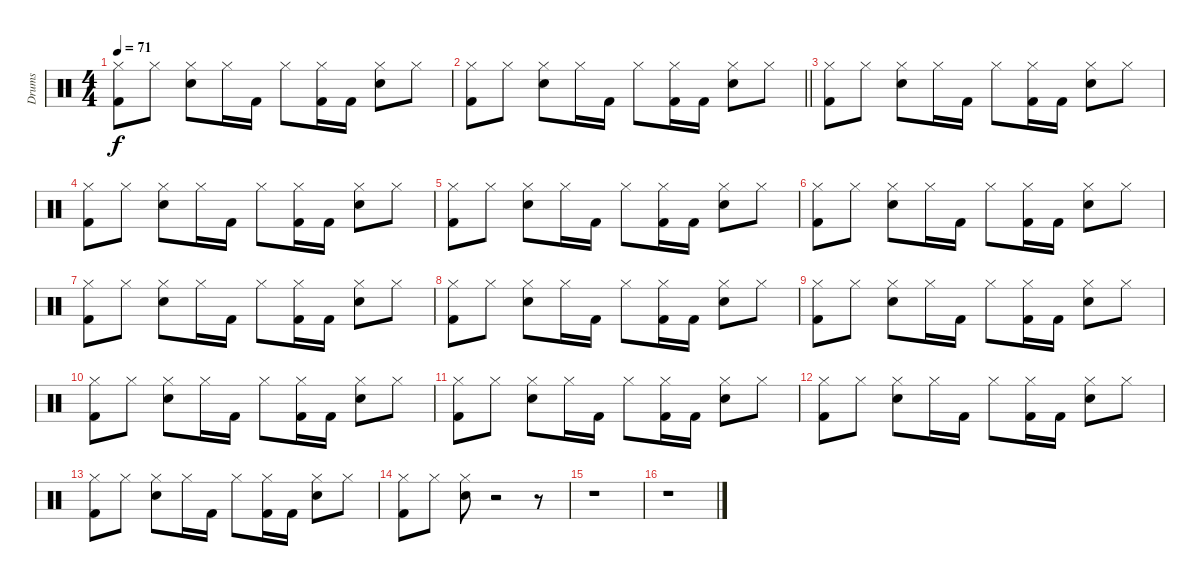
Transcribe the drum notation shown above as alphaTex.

\track ("Drums" "Drums") {instrument percussion}
\staff {score}
\articulation defaults
\ts (4 4)
\tempo 71
\clef neutral
\ks c
("Hi-Hat (closed)" "Kick (hit) 2").8{dy f} "Hi-Hat (closed)".8 ("Hi-Hat (closed)" "Snare (hit) 2").8 "Hi-Hat (closed)".16 "Kick (hit) 2".16 "Hi-Hat (closed)".8 ("Hi-Hat (closed)" "Kick (hit) 2").16 "Kick (hit) 2".16 ("Hi-Hat (closed)" "Snare (hit) 2").8 "Hi-Hat (closed)".8 |
\barLineRight lightlight
("Hi-Hat (closed)" "Kick (hit) 2").8 "Hi-Hat (closed)".8 ("Hi-Hat (closed)" "Snare (hit) 2").8 "Hi-Hat (closed)".16 "Kick (hit) 2".16 "Hi-Hat (closed)".8 ("Hi-Hat (closed)" "Kick (hit) 2").16 "Kick (hit) 2".16 ("Hi-Hat (closed)" "Snare (hit) 2").8 "Hi-Hat (closed)".8 |
("Hi-Hat (closed)" "Kick (hit) 2").8 "Hi-Hat (closed)".8 ("Hi-Hat (closed)" "Snare (hit) 2").8 "Hi-Hat (closed)".16 "Kick (hit) 2".16 "Hi-Hat (closed)".8 ("Hi-Hat (closed)" "Kick (hit) 2").16 "Kick (hit) 2".16 ("Hi-Hat (closed)" "Snare (hit) 2").8 "Hi-Hat (closed)".8 |
("Hi-Hat (closed)" "Kick (hit) 2").8 "Hi-Hat (closed)".8 ("Hi-Hat (closed)" "Snare (hit) 2").8 "Hi-Hat (closed)".16 "Kick (hit) 2".16 "Hi-Hat (closed)".8 ("Hi-Hat (closed)" "Kick (hit) 2").16 "Kick (hit) 2".16 ("Hi-Hat (closed)" "Snare (hit) 2").8 "Hi-Hat (closed)".8 |
("Hi-Hat (closed)" "Kick (hit) 2").8 "Hi-Hat (closed)".8 ("Hi-Hat (closed)" "Snare (hit) 2").8 "Hi-Hat (closed)".16 "Kick (hit) 2".16 "Hi-Hat (closed)".8 ("Hi-Hat (closed)" "Kick (hit) 2").16 "Kick (hit) 2".16 ("Hi-Hat (closed)" "Snare (hit) 2").8 "Hi-Hat (closed)".8 |
("Hi-Hat (closed)" "Kick (hit) 2").8 "Hi-Hat (closed)".8 ("Hi-Hat (closed)" "Snare (hit) 2").8 "Hi-Hat (closed)".16 "Kick (hit) 2".16 "Hi-Hat (closed)".8 ("Hi-Hat (closed)" "Kick (hit) 2").16 "Kick (hit) 2".16 ("Hi-Hat (closed)" "Snare (hit) 2").8 "Hi-Hat (closed)".8 |
("Hi-Hat (closed)" "Kick (hit) 2").8 "Hi-Hat (closed)".8 ("Hi-Hat (closed)" "Snare (hit) 2").8 "Hi-Hat (closed)".16 "Kick (hit) 2".16 "Hi-Hat (closed)".8 ("Hi-Hat (closed)" "Kick (hit) 2").16 "Kick (hit) 2".16 ("Hi-Hat (closed)" "Snare (hit) 2").8 "Hi-Hat (closed)".8 |
("Hi-Hat (closed)" "Kick (hit) 2").8 "Hi-Hat (closed)".8 ("Hi-Hat (closed)" "Snare (hit) 2").8 "Hi-Hat (closed)".16 "Kick (hit) 2".16 "Hi-Hat (closed)".8 ("Hi-Hat (closed)" "Kick (hit) 2").16 "Kick (hit) 2".16 ("Hi-Hat (closed)" "Snare (hit) 2").8 "Hi-Hat (closed)".8 |
("Hi-Hat (closed)" "Kick (hit) 2").8 "Hi-Hat (closed)".8 ("Hi-Hat (closed)" "Snare (hit) 2").8 "Hi-Hat (closed)".16 "Kick (hit) 2".16 "Hi-Hat (closed)".8 ("Hi-Hat (closed)" "Kick (hit) 2").16 "Kick (hit) 2".16 ("Hi-Hat (closed)" "Snare (hit) 2").8 "Hi-Hat (closed)".8 |
("Hi-Hat (closed)" "Kick (hit) 2").8 "Hi-Hat (closed)".8 ("Hi-Hat (closed)" "Snare (hit) 2").8 "Hi-Hat (closed)".16 "Kick (hit) 2".16 "Hi-Hat (closed)".8 ("Hi-Hat (closed)" "Kick (hit) 2").16 "Kick (hit) 2".16 ("Hi-Hat (closed)" "Snare (hit) 2").8 "Hi-Hat (closed)".8 |
("Hi-Hat (closed)" "Kick (hit) 2").8 "Hi-Hat (closed)".8 ("Hi-Hat (closed)" "Snare (hit) 2").8 "Hi-Hat (closed)".16 "Kick (hit) 2".16 "Hi-Hat (closed)".8 ("Hi-Hat (closed)" "Kick (hit) 2").16 "Kick (hit) 2".16 ("Hi-Hat (closed)" "Snare (hit) 2").8 "Hi-Hat (closed)".8 |
("Hi-Hat (closed)" "Kick (hit) 2").8 "Hi-Hat (closed)".8 ("Hi-Hat (closed)" "Snare (hit) 2").8 "Hi-Hat (closed)".16 "Kick (hit) 2".16 "Hi-Hat (closed)".8 ("Hi-Hat (closed)" "Kick (hit) 2").16 "Kick (hit) 2".16 ("Hi-Hat (closed)" "Snare (hit) 2").8 "Hi-Hat (closed)".8 |
("Hi-Hat (closed)" "Kick (hit) 2").8 "Hi-Hat (closed)".8 ("Hi-Hat (closed)" "Snare (hit) 2").8 "Hi-Hat (closed)".16 "Kick (hit) 2".16 "Hi-Hat (closed)".8 ("Hi-Hat (closed)" "Kick (hit) 2").16 "Kick (hit) 2".16 ("Hi-Hat (closed)" "Snare (hit) 2").8 "Hi-Hat (closed)".8 |
("Hi-Hat (closed)" "Kick (hit) 2").8 "Hi-Hat (closed)".8 ("Snare (hit) 2" "Hi-Hat (closed)").8 r.2 r.8 |
r.1 |
r.1
